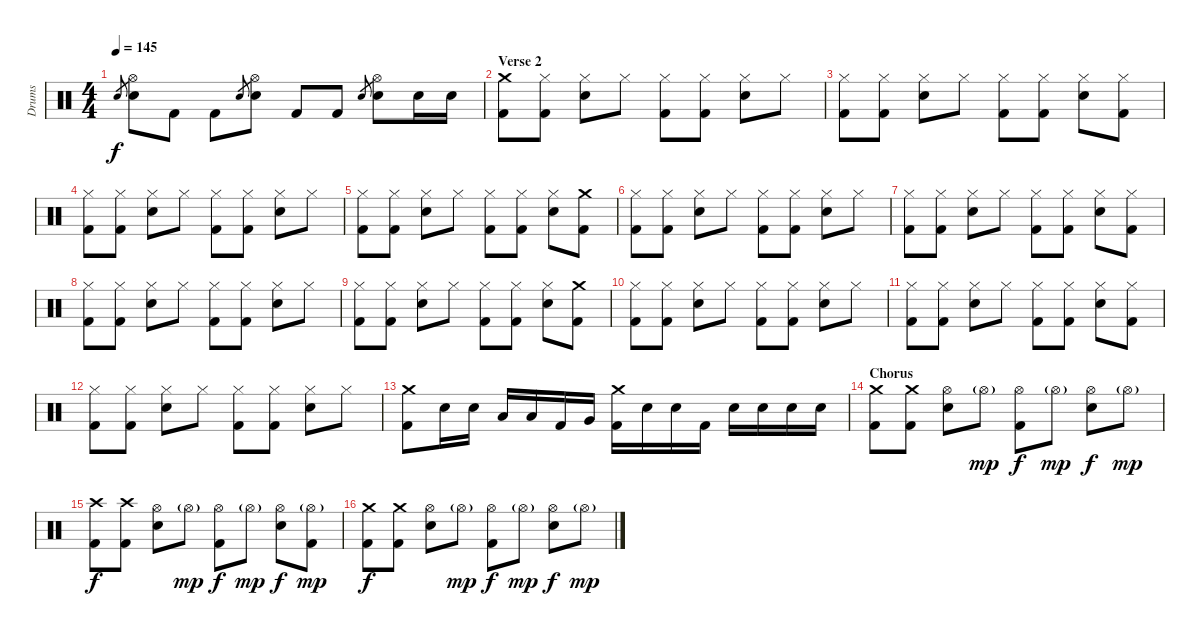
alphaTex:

\track ("Drums" "Drums") {instrument percussion}
\staff {score}
\articulation defaults
\ts (4 4)
\tempo 145
\clef neutral
\ks c "Electric Snare (hit)".8{gr dy f}
("Hi-Hat (open)" "Electric Snare (hit)").8 "Kick (hit) 2".8 "Kick (hit) 2".8 "Electric Snare (hit)".8{gr} ("Hi-Hat (open)" "Electric Snare (hit)").8 "Kick (hit) 2".8 "Kick (hit) 2".8 "Electric Snare (hit)".8{gr} ("Hi-Hat (open)" "Electric Snare (hit)").8 "Electric Snare (hit)".16 "Electric Snare (hit)".16 |
\section ("" "Verse 2")
("Crash medium (hit)" "Kick (hit) 2").8 ("Hi-Hat (closed)" "Kick (hit) 2").8 ("Hi-Hat (closed)" "Electric Snare (hit)").8 "Hi-Hat (closed)".8 ("Hi-Hat (closed)" "Kick (hit) 2").8 ("Hi-Hat (closed)" "Kick (hit) 2").8 ("Hi-Hat (closed)" "Electric Snare (hit)").8 "Hi-Hat (closed)".8 |
("Hi-Hat (closed)" "Kick (hit) 2").8 ("Hi-Hat (closed)" "Kick (hit) 2").8 ("Hi-Hat (closed)" "Electric Snare (hit)").8 "Hi-Hat (closed)".8 ("Hi-Hat (closed)" "Kick (hit) 2").8 ("Hi-Hat (closed)" "Kick (hit) 2").8 ("Hi-Hat (closed)" "Electric Snare (hit)").8 ("Hi-Hat (closed)" "Kick (hit) 2").8 |
("Hi-Hat (closed)" "Kick (hit) 2").8 ("Hi-Hat (closed)" "Kick (hit) 2").8 ("Hi-Hat (closed)" "Electric Snare (hit)").8 "Hi-Hat (closed)".8 ("Hi-Hat (closed)" "Kick (hit) 2").8 ("Hi-Hat (closed)" "Kick (hit) 2").8 ("Hi-Hat (closed)" "Electric Snare (hit)").8 "Hi-Hat (closed)".8 |
("Hi-Hat (closed)" "Kick (hit) 2").8 ("Hi-Hat (closed)" "Kick (hit) 2").8 ("Hi-Hat (closed)" "Electric Snare (hit)").8 "Hi-Hat (closed)".8 ("Hi-Hat (closed)" "Kick (hit) 2").8 ("Hi-Hat (closed)" "Kick (hit) 2").8 ("Hi-Hat (closed)" "Electric Snare (hit)").8 ("Crash medium (hit)" "Kick (hit) 2").8 |
("Hi-Hat (closed)" "Kick (hit) 2").8 ("Hi-Hat (closed)" "Kick (hit) 2").8 ("Hi-Hat (closed)" "Electric Snare (hit)").8 "Hi-Hat (closed)".8 ("Hi-Hat (closed)" "Kick (hit) 2").8 ("Hi-Hat (closed)" "Kick (hit) 2").8 ("Hi-Hat (closed)" "Electric Snare (hit)").8 "Hi-Hat (closed)".8 |
("Hi-Hat (closed)" "Kick (hit) 2").8 ("Hi-Hat (closed)" "Kick (hit) 2").8 ("Hi-Hat (closed)" "Electric Snare (hit)").8 "Hi-Hat (closed)".8 ("Hi-Hat (closed)" "Kick (hit) 2").8 ("Hi-Hat (closed)" "Kick (hit) 2").8 ("Hi-Hat (closed)" "Electric Snare (hit)").8 ("Hi-Hat (closed)" "Kick (hit) 2").8 |
("Hi-Hat (closed)" "Kick (hit) 2").8 ("Hi-Hat (closed)" "Kick (hit) 2").8 ("Hi-Hat (closed)" "Electric Snare (hit)").8 "Hi-Hat (closed)".8 ("Hi-Hat (closed)" "Kick (hit) 2").8 ("Hi-Hat (closed)" "Kick (hit) 2").8 ("Hi-Hat (closed)" "Electric Snare (hit)").8 "Hi-Hat (closed)".8 |
("Hi-Hat (closed)" "Kick (hit) 2").8 ("Hi-Hat (closed)" "Kick (hit) 2").8 ("Hi-Hat (closed)" "Electric Snare (hit)").8 "Hi-Hat (closed)".8 ("Hi-Hat (closed)" "Kick (hit) 2").8 ("Hi-Hat (closed)" "Kick (hit) 2").8 ("Hi-Hat (closed)" "Electric Snare (hit)").8 ("Crash medium (hit)" "Kick (hit) 2").8 |
("Hi-Hat (closed)" "Kick (hit) 2").8 ("Hi-Hat (closed)" "Kick (hit) 2").8 ("Hi-Hat (closed)" "Electric Snare (hit)").8 "Hi-Hat (closed)".8 ("Hi-Hat (closed)" "Kick (hit) 2").8 ("Hi-Hat (closed)" "Kick (hit) 2").8 ("Hi-Hat (closed)" "Electric Snare (hit)").8 "Hi-Hat (closed)".8 |
("Hi-Hat (closed)" "Kick (hit) 2").8 ("Hi-Hat (closed)" "Kick (hit) 2").8 ("Hi-Hat (closed)" "Electric Snare (hit)").8 "Hi-Hat (closed)".8 ("Hi-Hat (closed)" "Kick (hit) 2").8 ("Hi-Hat (closed)" "Kick (hit) 2").8 ("Hi-Hat (closed)" "Electric Snare (hit)").8 ("Hi-Hat (closed)" "Kick (hit) 2").8 |
("Hi-Hat (closed)" "Kick (hit) 2").8 ("Hi-Hat (closed)" "Kick (hit) 2").8 ("Hi-Hat (closed)" "Electric Snare (hit)").8 "Hi-Hat (closed)".8 ("Hi-Hat (closed)" "Kick (hit) 2").8 ("Hi-Hat (closed)" "Kick (hit) 2").8 ("Hi-Hat (closed)" "Electric Snare (hit)").8 "Hi-Hat (closed)".8 |
("Crash medium (hit)" "Kick (hit) 2").8 "Electric Snare (hit)".16 "Electric Snare (hit)".16 "Low Tom (hit)".16 "Low Tom (hit)".16 "Kick (hit) 2".16 "Very Low Tom (hit)".16 ("Crash medium (hit)" "Kick (hit) 2").16 "Electric Snare (hit)".16 "Electric Snare (hit)".16 "Kick (hit) 2".16 "Electric Snare (hit)".16 "Electric Snare (hit)".16 "Electric Snare (hit)".16 "Electric Snare (hit)".16 |
\section ("" "Chorus")
("Crash medium (hit)" "Kick (hit) 2").8 ("Crash medium (hit)" "Kick (hit) 2").8 ("Hi-Hat (open)" "Electric Snare (hit)").8 "Hi-Hat (open)"{g}.8{dy mp} ("Hi-Hat (open)" "Kick (hit) 2").8{dy f} "Hi-Hat (open)"{g}.8{dy mp} ("Hi-Hat (open)" "Electric Snare (hit)").8{dy f} "Hi-Hat (open)"{g}.8{dy mp} |
("Crash high (hit)" "Kick (hit) 2").8{dy f} ("Crash high (hit)" "Kick (hit) 2").8 ("Hi-Hat (open)" "Electric Snare (hit)").8 "Hi-Hat (open)"{g}.8{dy mp} ("Hi-Hat (open)" "Kick (hit) 2").8{dy f} "Hi-Hat (open)"{g}.8{dy mp} ("Hi-Hat (open)" "Electric Snare (hit)").8{dy f} ("Hi-Hat (open)"{g} "Kick (hit) 2").8{dy mp} |
("Crash medium (hit)" "Kick (hit) 2").8{dy f} ("Crash medium (hit)" "Kick (hit) 2").8 ("Hi-Hat (open)" "Electric Snare (hit)").8 "Hi-Hat (open)"{g}.8{dy mp} ("Hi-Hat (open)" "Kick (hit) 2").8{dy f} "Hi-Hat (open)"{g}.8{dy mp} ("Hi-Hat (open)" "Electric Snare (hit)").8{dy f} "Hi-Hat (open)"{g}.8{dy mp}
